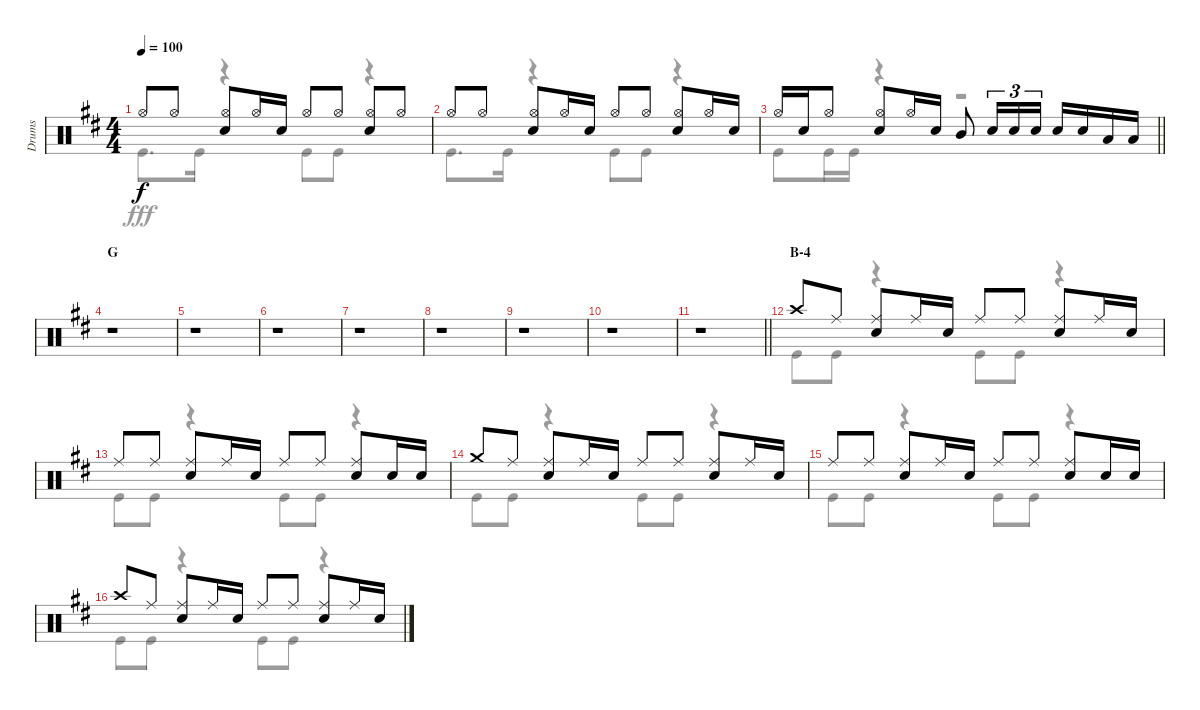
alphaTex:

\track ("Drums" "Drums") {instrument percussion}
\staff {score}
\articulation defaults
\voice
\ts (4 4)
\tempo 100
\clef neutral
\ks d "Hi-Hat (open)".8{dy f} "Hi-Hat (open)".8
("Hi-Hat (open)" "Snare (hit) 2").8 "Hi-Hat (open)".16 "Snare (hit) 2".16 "Hi-Hat (open)".8 "Hi-Hat (open)".8 ("Hi-Hat (open)" "Snare (hit) 2").8 "Hi-Hat (open)".8 |
"Hi-Hat (open)".8 "Hi-Hat (open)".8 ("Hi-Hat (open)" "Snare (hit) 2").8 "Hi-Hat (open)".16 "Snare (hit) 2".16 "Hi-Hat (open)".8 "Hi-Hat (open)".8 ("Hi-Hat (open)" "Snare (hit) 2").8 "Hi-Hat (open)".16 "Snare (hit) 2".16 |
\barLineRight lightlight "Hi-Hat (open)".16 "Snare (hit) 2".16 "Hi-Hat (open)".8
("Hi-Hat (open)" "Snare (hit) 2").8 "Hi-Hat (open)".16 "Snare (hit) 2".16 "Mid Tom (hit)".8 "Snare (hit) 2".16{tu (3 2)} "Snare (hit) 2".16{tu (3 2)} "Snare (hit) 2".16{tu (3 2)} "Snare (hit) 2".16 "Snare (hit) 2".16 "Low Tom (hit)".16 "Low Tom (hit)".16 |
\section ("" "G")
r.1 |
r.1 |
r.1 |
r.1 |
r.1 |
r.1 |
r.1 |
\barLineRight lightlight
r.1 |
\section ("" "B-4")
"Crash high (hit)".8 "Ride (middle)".8 ("Ride (middle)" "Snare (hit) 2").8 "Ride (middle)".16 "Snare (hit) 2".16 "Ride (middle)".8 "Ride (middle)".8 ("Ride (middle)" "Snare (hit) 2").8 "Ride (middle)".16 "Snare (hit) 2".16 |
"Ride (middle)".8 "Ride (middle)".8 ("Ride (middle)" "Snare (hit) 2").8 "Ride (middle)".16 "Snare (hit) 2".16 "Ride (middle)".8 "Ride (middle)".8 ("Ride (middle)" "Snare (hit) 2").8 "Snare (hit) 2".16 "Snare (hit) 2".16 |
"Crash medium (hit)".8 "Ride (middle)".8 ("Ride (middle)" "Snare (hit) 2").8 "Ride (middle)".16 "Snare (hit) 2".16 "Ride (middle)".8 "Ride (middle)".8 ("Ride (middle)" "Snare (hit) 2").8 "Ride (middle)".16 "Snare (hit) 2".16 |
"Ride (middle)".8 "Ride (middle)".8 ("Ride (middle)" "Snare (hit) 2").8 "Ride (middle)".16 "Snare (hit) 2".16 "Ride (middle)".8 "Ride (middle)".8 ("Ride (middle)" "Snare (hit) 2").8 "Snare (hit) 2".16 "Snare (hit) 2".16 |
"Crash high (hit)".8 "Ride (middle)".8 ("Ride (middle)" "Snare (hit) 2").8 "Ride (middle)".16 "Snare (hit) 2".16 "Ride (middle)".8 "Ride (middle)".8 ("Ride (middle)" "Snare (hit) 2").8 "Ride (middle)".16 "Snare (hit) 2".16
\voice
\clef neutral
\ottava regular
\simile none
\ks d "Kick (hit)".8{d dy fff} "Kick (hit)".16
r.4 "Kick (hit)".8 "Kick (hit)".8 r.4 |
"Kick (hit)".8{d} "Kick (hit)".16 r.4 "Kick (hit)".8 "Kick (hit)".8 r.4 |
\barLineRight lightlight "Kick (hit)".8 "Kick (hit)".16 "Kick (hit)".16
r.4 r.2 |
r.1 |
r.1 |
r.1 |
r.1 |
r.1 |
r.1 |
r.1 |
\barLineRight lightlight
r.1 |
"Kick (hit)".8 "Kick (hit)".8 r.4 "Kick (hit)".8 "Kick (hit)".8 r.4 |
"Kick (hit)".8 "Kick (hit)".8 r.4 "Kick (hit)".8 "Kick (hit)".8 r.4 |
"Kick (hit)".8 "Kick (hit)".8 r.4 "Kick (hit)".8 "Kick (hit)".8 r.4 |
"Kick (hit)".8 "Kick (hit)".8 r.4 "Kick (hit)".8 "Kick (hit)".8 r.4 |
"Kick (hit)".8 "Kick (hit)".8 r.4 "Kick (hit)".8 "Kick (hit)".8 r.4
